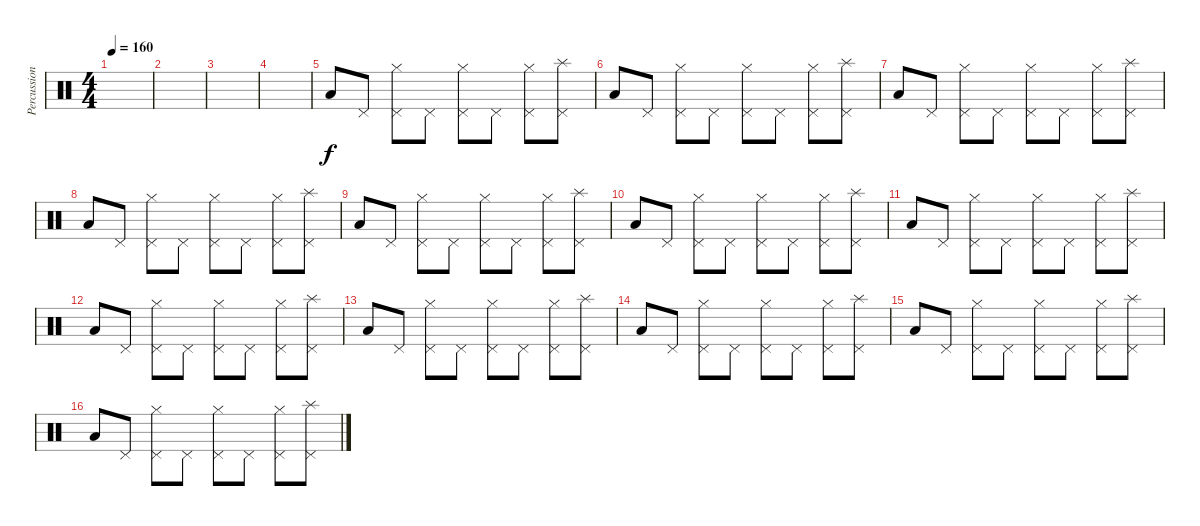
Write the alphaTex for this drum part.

\track ("Percussion" "Percussion") {instrument percussion}
\staff {score}
\articulation defaults
\ts (4 4)
\tempo 160
\clef neutral
\ks c
|
|
|
|
"Low Tom (hit)".8 "Pedal Hi-Hat (hit)".8 ("Pedal Hi-Hat (hit)" "Hi-Hat (closed)").8 "Pedal Hi-Hat (hit)".8 ("Pedal Hi-Hat (hit)" "Hi-Hat (closed)").8 "Pedal Hi-Hat (hit)".8 ("Pedal Hi-Hat (hit)" "Hi-Hat (closed)").8 ("Pedal Hi-Hat (hit)" "Splash (hit)").8 |
"Low Tom (hit)".8 "Pedal Hi-Hat (hit)".8 ("Pedal Hi-Hat (hit)" "Hi-Hat (closed)").8 "Pedal Hi-Hat (hit)".8 ("Pedal Hi-Hat (hit)" "Hi-Hat (closed)").8 "Pedal Hi-Hat (hit)".8 ("Pedal Hi-Hat (hit)" "Hi-Hat (closed)").8 ("Pedal Hi-Hat (hit)" "Splash (hit)").8 |
"Low Tom (hit)".8 "Pedal Hi-Hat (hit)".8 ("Pedal Hi-Hat (hit)" "Hi-Hat (closed)").8 "Pedal Hi-Hat (hit)".8 ("Pedal Hi-Hat (hit)" "Hi-Hat (closed)").8 "Pedal Hi-Hat (hit)".8 ("Pedal Hi-Hat (hit)" "Hi-Hat (closed)").8 ("Pedal Hi-Hat (hit)" "Splash (hit)").8 |
"Low Tom (hit)".8 "Pedal Hi-Hat (hit)".8 ("Pedal Hi-Hat (hit)" "Hi-Hat (closed)").8 "Pedal Hi-Hat (hit)".8 ("Pedal Hi-Hat (hit)" "Hi-Hat (closed)").8 "Pedal Hi-Hat (hit)".8 ("Pedal Hi-Hat (hit)" "Hi-Hat (closed)").8 ("Pedal Hi-Hat (hit)" "Splash (hit)").8 |
"Low Tom (hit)".8 "Pedal Hi-Hat (hit)".8 ("Pedal Hi-Hat (hit)" "Hi-Hat (closed)").8 "Pedal Hi-Hat (hit)".8 ("Pedal Hi-Hat (hit)" "Hi-Hat (closed)").8 "Pedal Hi-Hat (hit)".8 ("Pedal Hi-Hat (hit)" "Hi-Hat (closed)").8 ("Pedal Hi-Hat (hit)" "Splash (hit)").8 |
"Low Tom (hit)".8 "Pedal Hi-Hat (hit)".8 ("Pedal Hi-Hat (hit)" "Hi-Hat (closed)").8 "Pedal Hi-Hat (hit)".8 ("Pedal Hi-Hat (hit)" "Hi-Hat (closed)").8 "Pedal Hi-Hat (hit)".8 ("Pedal Hi-Hat (hit)" "Hi-Hat (closed)").8 ("Pedal Hi-Hat (hit)" "Splash (hit)").8 |
"Low Tom (hit)".8 "Pedal Hi-Hat (hit)".8 ("Pedal Hi-Hat (hit)" "Hi-Hat (closed)").8 "Pedal Hi-Hat (hit)".8 ("Pedal Hi-Hat (hit)" "Hi-Hat (closed)").8 "Pedal Hi-Hat (hit)".8 ("Pedal Hi-Hat (hit)" "Hi-Hat (closed)").8 ("Pedal Hi-Hat (hit)" "Splash (hit)").8 |
"Low Tom (hit)".8 "Pedal Hi-Hat (hit)".8 ("Pedal Hi-Hat (hit)" "Hi-Hat (closed)").8 "Pedal Hi-Hat (hit)".8 ("Pedal Hi-Hat (hit)" "Hi-Hat (closed)").8 "Pedal Hi-Hat (hit)".8 ("Pedal Hi-Hat (hit)" "Hi-Hat (closed)").8 ("Pedal Hi-Hat (hit)" "Splash (hit)").8 |
"Low Tom (hit)".8 "Pedal Hi-Hat (hit)".8 ("Pedal Hi-Hat (hit)" "Hi-Hat (closed)").8 "Pedal Hi-Hat (hit)".8 ("Pedal Hi-Hat (hit)" "Hi-Hat (closed)").8 "Pedal Hi-Hat (hit)".8 ("Pedal Hi-Hat (hit)" "Hi-Hat (closed)").8 ("Pedal Hi-Hat (hit)" "Splash (hit)").8 |
"Low Tom (hit)".8 "Pedal Hi-Hat (hit)".8 ("Pedal Hi-Hat (hit)" "Hi-Hat (closed)").8 "Pedal Hi-Hat (hit)".8 ("Pedal Hi-Hat (hit)" "Hi-Hat (closed)").8 "Pedal Hi-Hat (hit)".8 ("Pedal Hi-Hat (hit)" "Hi-Hat (closed)").8 ("Pedal Hi-Hat (hit)" "Splash (hit)").8 |
"Low Tom (hit)".8 "Pedal Hi-Hat (hit)".8 ("Pedal Hi-Hat (hit)" "Hi-Hat (closed)").8 "Pedal Hi-Hat (hit)".8 ("Pedal Hi-Hat (hit)" "Hi-Hat (closed)").8 "Pedal Hi-Hat (hit)".8 ("Pedal Hi-Hat (hit)" "Hi-Hat (closed)").8 ("Pedal Hi-Hat (hit)" "Splash (hit)").8 |
"Low Tom (hit)".8 "Pedal Hi-Hat (hit)".8 ("Pedal Hi-Hat (hit)" "Hi-Hat (closed)").8 "Pedal Hi-Hat (hit)".8 ("Pedal Hi-Hat (hit)" "Hi-Hat (closed)").8 "Pedal Hi-Hat (hit)".8 ("Pedal Hi-Hat (hit)" "Hi-Hat (closed)").8 ("Pedal Hi-Hat (hit)" "Splash (hit)").8
